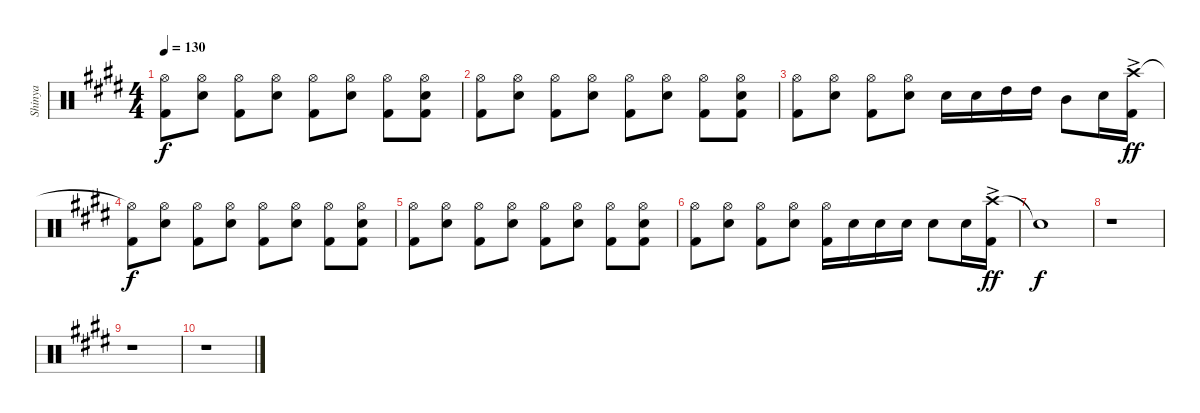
\track ("Shinya" "Shinya") {instrument percussion}
\staff {score}
\articulation defaults
\ts (4 4)
\tempo 130
\clef neutral
\ks c#minor
("Hi-Hat (open)" "Kick (hit) 2").8{dy f} ("Hi-Hat (open)" "Snare (hit) 2").8 ("Hi-Hat (open)" "Kick (hit) 2").8 ("Hi-Hat (open)" "Snare (hit) 2").8 ("Hi-Hat (open)" "Kick (hit) 2").8 ("Hi-Hat (open)" "Snare (hit) 2").8 ("Hi-Hat (open)" "Kick (hit) 2").8 ("Hi-Hat (open)" "Snare (hit) 2" "Kick (hit) 2").8 |
("Hi-Hat (open)" "Kick (hit) 2").8 ("Hi-Hat (open)" "Snare (hit) 2").8 ("Hi-Hat (open)" "Kick (hit) 2").8 ("Hi-Hat (open)" "Snare (hit) 2").8 ("Hi-Hat (open)" "Kick (hit) 2").8 ("Hi-Hat (open)" "Snare (hit) 2").8 ("Hi-Hat (open)" "Kick (hit) 2").8 ("Hi-Hat (open)" "Snare (hit) 2" "Kick (hit) 2").8 |
("Hi-Hat (open)" "Kick (hit) 2").8 ("Hi-Hat (open)" "Snare (hit) 2").8 ("Hi-Hat (open)" "Kick (hit) 2").8 ("Hi-Hat (open)" "Snare (hit) 2").8 "Snare (hit) 2".16 "Snare (hit) 2".16 "High Tom (hit)".16 "High Tom (hit)".16 "Mid Tom (hit)".8 "Snare (hit) 2".16 ("Crash high (hit)"{ac} "Kick (hit) 2").16{dy ff} |
("Hi-Hat (open)"{t} "Kick (hit) 2").8{dy f} ("Hi-Hat (open)" "Snare (hit) 2").8 ("Hi-Hat (open)" "Kick (hit) 2").8 ("Hi-Hat (open)" "Snare (hit) 2").8 ("Hi-Hat (open)" "Kick (hit) 2").8 ("Hi-Hat (open)" "Snare (hit) 2").8 ("Hi-Hat (open)" "Kick (hit) 2").8 ("Hi-Hat (open)" "Snare (hit) 2" "Kick (hit) 2").8 |
("Hi-Hat (open)" "Kick (hit) 2").8 ("Hi-Hat (open)" "Snare (hit) 2").8 ("Hi-Hat (open)" "Kick (hit) 2").8 ("Hi-Hat (open)" "Snare (hit) 2").8 ("Hi-Hat (open)" "Kick (hit) 2").8 ("Hi-Hat (open)" "Snare (hit) 2").8 ("Hi-Hat (open)" "Kick (hit) 2").8 ("Hi-Hat (open)" "Snare (hit) 2" "Kick (hit) 2").8 |
("Hi-Hat (open)" "Kick (hit) 2").8 ("Hi-Hat (open)" "Snare (hit) 2").8 ("Hi-Hat (open)" "Kick (hit) 2").8 ("Hi-Hat (open)" "Snare (hit) 2").8 ("Hi-Hat (open)" "Kick (hit) 2").16 "Snare (hit) 2".16 "Snare (hit) 2".16 "Snare (hit) 2".16 "Snare (hit) 2".8 "Snare (hit) 2".16 ("Crash high (hit)"{ac} "Kick (hit) 2").16{dy ff} |
"Snare (hit)"{t}.1{dy f} |
r.1 |
r.1 |
r.1
